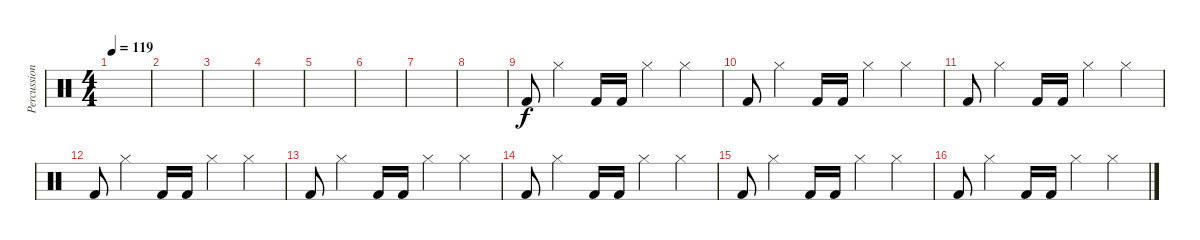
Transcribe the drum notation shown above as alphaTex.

\track ("Percussion" "Percussion") {instrument percussion}
\staff {score}
\articulation defaults
\ts (4 4)
\tempo 119
\clef neutral
\ks c
|
|
|
|
|
|
|
|
"Kick (hit) 2".8 "Hi-Hat (closed)".4 "Kick (hit) 2".16 "Kick (hit) 2".16 "Hi-Hat (closed)".4 "Hi-Hat (closed)".4 |
"Kick (hit) 2".8 "Hi-Hat (closed)".4 "Kick (hit) 2".16 "Kick (hit) 2".16 "Hi-Hat (closed)".4 "Hi-Hat (closed)".4 |
"Kick (hit) 2".8 "Hi-Hat (closed)".4 "Kick (hit) 2".16 "Kick (hit) 2".16 "Hi-Hat (closed)".4 "Hi-Hat (closed)".4 |
"Kick (hit) 2".8 "Hi-Hat (closed)".4 "Kick (hit) 2".16 "Kick (hit) 2".16 "Hi-Hat (closed)".4 "Hi-Hat (closed)".4 |
"Kick (hit) 2".8 "Hi-Hat (closed)".4 "Kick (hit) 2".16 "Kick (hit) 2".16 "Hi-Hat (closed)".4 "Hi-Hat (closed)".4 |
"Kick (hit) 2".8 "Hi-Hat (closed)".4 "Kick (hit) 2".16 "Kick (hit) 2".16 "Hi-Hat (closed)".4 "Hi-Hat (closed)".4 |
"Kick (hit) 2".8 "Hi-Hat (closed)".4 "Kick (hit) 2".16 "Kick (hit) 2".16 "Hi-Hat (closed)".4 "Hi-Hat (closed)".4 |
"Kick (hit) 2".8 "Hi-Hat (closed)".4 "Kick (hit) 2".16 "Kick (hit) 2".16 "Hi-Hat (closed)".4 "Hi-Hat (closed)".4
